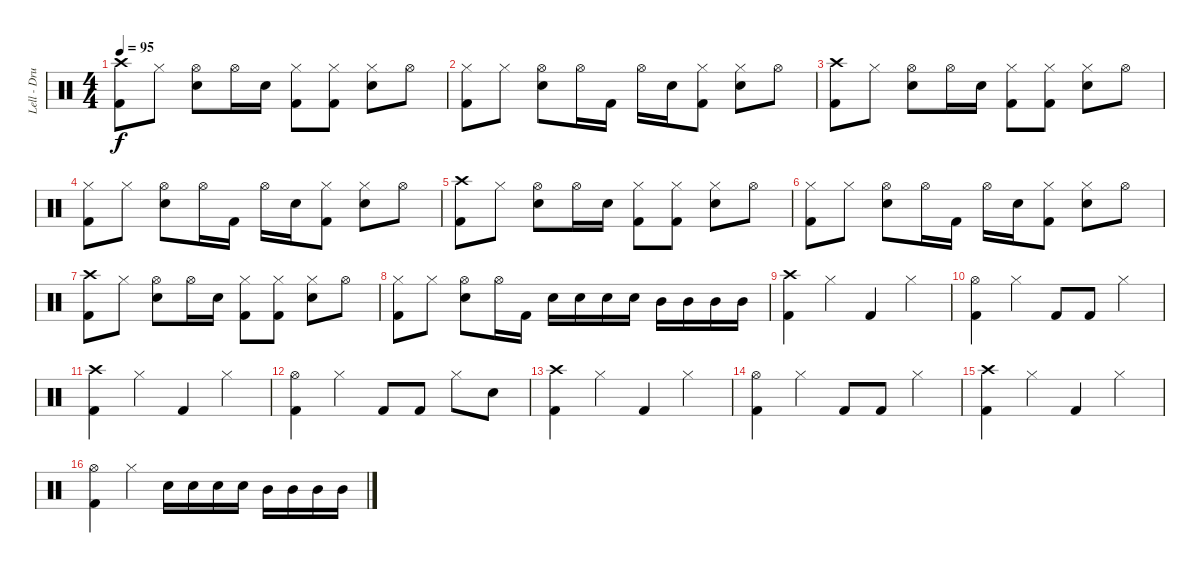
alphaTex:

\track ("Lell - Drums" "Lell - Dru") {instrument percussion}
\staff {score}
\articulation defaults
\ts (4 4)
\tempo 95
\clef neutral
\ks c
("Crash high (hit)" "Kick (hit) 2").8{dy f} "Hi-Hat (closed)".8 ("Hi-Hat (open)" "Snare (hit) 2").8 "Hi-Hat (open)".16 "Snare (hit) 2".16 ("Hi-Hat (closed)" "Kick (hit) 2").8 ("Hi-Hat (closed)" "Kick (hit) 2").8 ("Hi-Hat (closed)" "Snare (hit) 2").8 "Hi-Hat (open)".8 |
("Hi-Hat (closed)" "Kick (hit) 2").8 "Hi-Hat (closed)".8 ("Hi-Hat (open)" "Snare (hit) 2").8 "Hi-Hat (open)".16 "Kick (hit) 2".16 "Hi-Hat (open)".16 "Snare (hit) 2".16 ("Hi-Hat (closed)" "Kick (hit) 2").8 ("Hi-Hat (closed)" "Snare (hit) 2").8 "Hi-Hat (open)".8 |
("Crash high (hit)" "Kick (hit) 2").8 "Hi-Hat (closed)".8 ("Hi-Hat (open)" "Snare (hit) 2").8 "Hi-Hat (open)".16 "Snare (hit) 2".16 ("Hi-Hat (closed)" "Kick (hit) 2").8 ("Hi-Hat (closed)" "Kick (hit) 2").8 ("Hi-Hat (closed)" "Snare (hit) 2").8 "Hi-Hat (open)".8 |
("Hi-Hat (closed)" "Kick (hit) 2").8 "Hi-Hat (closed)".8 ("Hi-Hat (open)" "Snare (hit) 2").8 "Hi-Hat (open)".16 "Kick (hit) 2".16 "Hi-Hat (open)".16 "Snare (hit) 2".16 ("Hi-Hat (closed)" "Kick (hit) 2").8 ("Hi-Hat (closed)" "Snare (hit) 2").8 "Hi-Hat (open)".8 |
("Crash high (hit)" "Kick (hit) 2").8 "Hi-Hat (closed)".8 ("Hi-Hat (open)" "Snare (hit) 2").8 "Hi-Hat (open)".16 "Snare (hit) 2".16 ("Hi-Hat (closed)" "Kick (hit) 2").8 ("Hi-Hat (closed)" "Kick (hit) 2").8 ("Hi-Hat (closed)" "Snare (hit) 2").8 "Hi-Hat (open)".8 |
("Hi-Hat (closed)" "Kick (hit) 2").8 "Hi-Hat (closed)".8 ("Hi-Hat (open)" "Snare (hit) 2").8 "Hi-Hat (open)".16 "Kick (hit) 2".16 "Hi-Hat (open)".16 "Snare (hit) 2".16 ("Hi-Hat (closed)" "Kick (hit) 2").8 ("Hi-Hat (closed)" "Snare (hit) 2").8 "Hi-Hat (open)".8 |
("Crash high (hit)" "Kick (hit) 2").8 "Hi-Hat (closed)".8 ("Hi-Hat (open)" "Snare (hit) 2").8 "Hi-Hat (open)".16 "Snare (hit) 2".16 ("Hi-Hat (closed)" "Kick (hit) 2").8 ("Hi-Hat (closed)" "Kick (hit) 2").8 ("Hi-Hat (closed)" "Snare (hit) 2").8 "Hi-Hat (open)".8 |
("Hi-Hat (closed)" "Kick (hit) 2").8 "Hi-Hat (closed)".8 ("Hi-Hat (open)" "Snare (hit) 2").8 "Hi-Hat (open)".16 "Kick (hit) 2".16 "Snare (hit) 2".16 "Snare (hit) 2".16 "Snare (hit) 2".16 "Snare (hit) 2".16 "Mid Tom (hit)".16 "Mid Tom (hit)".16 "Mid Tom (hit)".16 "Mid Tom (hit)".16 |
("Crash high (hit)" "Kick (hit) 2").4 "Hi-Hat (closed)".4 "Kick (hit) 2".4 "Hi-Hat (closed)".4 |
("Hi-Hat (open)" "Kick (hit) 2").4 "Hi-Hat (closed)".4 "Kick (hit) 2".8 "Kick (hit) 2".8 "Hi-Hat (closed)".4 |
("Crash high (hit)" "Kick (hit) 2").4 "Hi-Hat (closed)".4 "Kick (hit) 2".4 "Hi-Hat (closed)".4 |
("Hi-Hat (open)" "Kick (hit) 2").4 "Hi-Hat (closed)".4 "Kick (hit) 2".8 "Kick (hit) 2".8 "Hi-Hat (closed)".8 "Snare (hit) 2".8 |
("Crash high (hit)" "Kick (hit) 2").4 "Hi-Hat (closed)".4 "Kick (hit) 2".4 "Hi-Hat (closed)".4 |
("Hi-Hat (open)" "Kick (hit) 2").4 "Hi-Hat (closed)".4 "Kick (hit) 2".8 "Kick (hit) 2".8 "Hi-Hat (closed)".4 |
("Crash high (hit)" "Kick (hit) 2").4 "Hi-Hat (closed)".4 "Kick (hit) 2".4 "Hi-Hat (closed)".4 |
("Hi-Hat (open)" "Kick (hit) 2").4 "Hi-Hat (closed)".4 "Snare (hit) 2".16 "Snare (hit) 2".16 "Snare (hit) 2".16 "Snare (hit) 2".16 "Mid Tom (hit)".16 "Mid Tom (hit)".16 "Mid Tom (hit)".16 "Mid Tom (hit)".16
